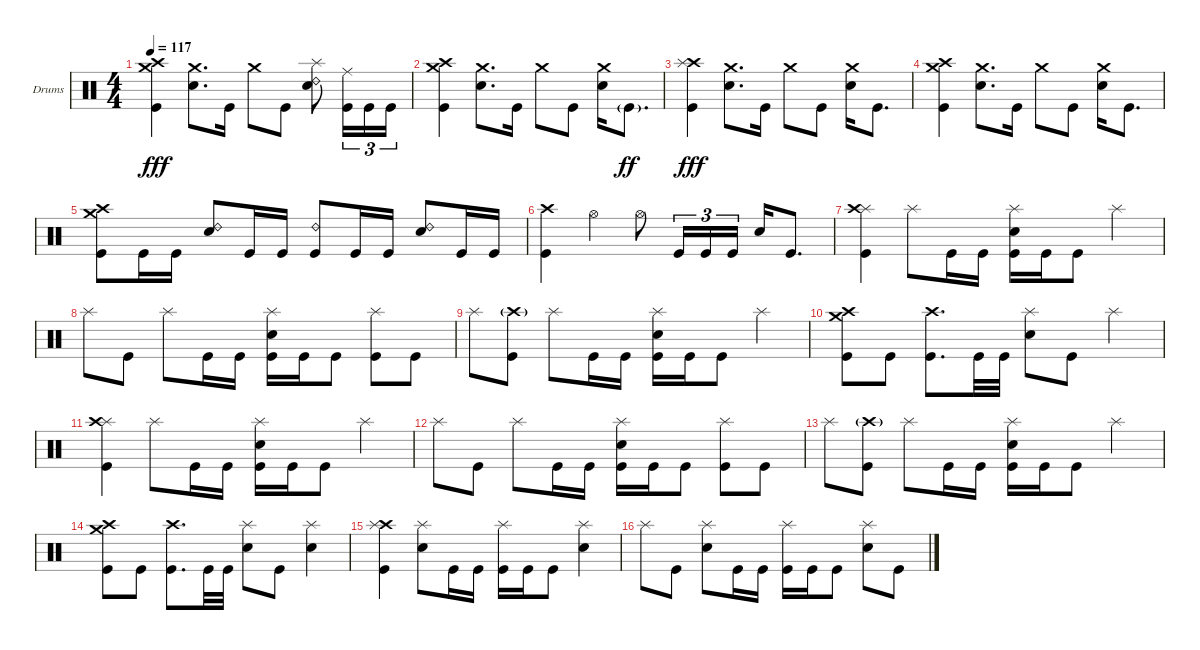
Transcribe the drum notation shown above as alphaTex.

\defaultSystemsLayout 4
\bracketExtendMode groupsimilarinstruments
\firstSystemTrackNameOrientation horizontal
\otherSystemsTrackNameOrientation horizontal
\track ("Drumkit" "Drums") {instrument percussion}
\staff {score}
\articulation defaults
\ts (4 4)
\tempo 117
\clef neutral
\scale
0.333333
\ks c
("Crash high (hit)" "Crash medium (hit)" "Kick (hit)").4{dy fff} ("Crash medium (hit)" "Snare (hit) 2").8{d} "Kick (hit)".16 "Crash medium (hit)".8 "Kick (hit)".8 ("Ride (bell) 2" "Splash (hit)" "Snare (hit) 2").8 ("Ride (middle)" "Kick (hit)").16{tu (3 2)} "Kick (hit)".16{tu (3 2)} "Kick (hit)".16{tu (3 2)} |
\scale
0.333333 ("Crash high (hit)" "Crash medium (hit)" "Kick (hit)").4 ("Crash medium (hit)" "Snare (hit) 2").8{d} "Kick (hit)".16 "Crash medium (hit)".8 "Kick (hit)".8 ("Crash medium (hit)" "Snare (hit) 2").16 "Kick (hit)"{g}.8{d dy ff} |
\scale
0.333333 ("Crash high (hit)" "Splash (hit)" "Kick (hit)").4{dy fff} ("Crash medium (hit)" "Snare (hit) 2").8{d} "Kick (hit)".16 "Crash medium (hit)".8 "Kick (hit)".8 ("Crash medium (hit)" "Snare (hit) 2").16 "Kick (hit)".8{d} |
\scale
0.333333 ("Crash high (hit)" "Crash medium (hit)" "Kick (hit)").4 ("Crash medium (hit)" "Snare (hit) 2").8{d} "Kick (hit)".16 "Crash medium (hit)".8 "Kick (hit)".8 ("Crash medium (hit)" "Snare (hit) 2").16 "Kick (hit)".8{d} |
\scale
0.333333 ("Crash high (hit)" "Crash medium (hit)" "Kick (hit)").8 "Kick (hit)".16 "Kick (hit)".16 ("Ride (bell) 2" "Snare (hit) 2").8 "Kick (hit)".16 "Kick (hit)".16 ("Ride (bell) 2" "Kick (hit)").8 "Kick (hit)".16 "Kick (hit)".16 ("Ride (bell) 2" "Snare (hit) 2").8 "Kick (hit)".16 "Kick (hit)".16 |
\scale
0.333333 ("Crash high (hit)" "Kick (hit)").4 "Hi-Hat (open)".4 "Hi-Hat (open)".8 "Kick (hit)".16{tu (3 2)} "Kick (hit)".16{tu (3 2)} "Kick (hit)".16{tu (3 2)} "Snare (hit) 2".16 "Kick (hit)".8{d} |
\scale
0.333333 ("Splash (hit)" "Crash high (hit)" "Kick (hit)").4 "Splash (hit)".8 "Kick (hit)".16 "Kick (hit)".16 ("Splash (hit)" "Snare (hit) 2" "Kick (hit)").16 "Kick (hit)".16 "Kick (hit)".8 "Splash (hit)".4 |
\scale
0.333333 "Splash (hit)".8 "Kick (hit)".8 "Splash (hit)".8 "Kick (hit)".16 "Kick (hit)".16 ("Splash (hit)" "Snare (hit) 2" "Kick (hit)").16 "Kick (hit)".16 "Kick (hit)".8 ("Splash (hit)" "Kick (hit)").8 "Kick (hit)".8 |
\scale
0.333333 "Splash (hit)".8 ("Crash high (hit)"{g} "Kick (hit)").8 "Splash (hit)".8 "Kick (hit)".16 "Kick (hit)".16 ("Splash (hit)" "Snare (hit) 2" "Kick (hit)").16 "Kick (hit)".16 "Kick (hit)".8 "Splash (hit)".4 |
\scale
0.333333 ("Crash high (hit)" "Crash medium (hit)" "Kick (hit)").8 "Kick (hit)".8 ("Crash high (hit)" "Kick (hit)").8{d} "Kick (hit)".32 "Kick (hit)".32 ("Splash (hit)" "Snare (hit) 2").8 "Kick (hit)".8 "Splash (hit)".4 |
\scale
0.333333 ("Splash (hit)" "Crash high (hit)" "Kick (hit)").4 "Splash (hit)".8 "Kick (hit)".16 "Kick (hit)".16 ("Splash (hit)" "Snare (hit) 2" "Kick (hit)").16 "Kick (hit)".16 "Kick (hit)".8 "Splash (hit)".4 |
\scale
0.333333 "Splash (hit)".8 "Kick (hit)".8 "Splash (hit)".8 "Kick (hit)".16 "Kick (hit)".16 ("Splash (hit)" "Snare (hit) 2" "Kick (hit)").16 "Kick (hit)".16 "Kick (hit)".8 ("Splash (hit)" "Kick (hit)").8 "Kick (hit)".8 |
\scale
0.333333 "Splash (hit)".8 ("Crash high (hit)"{g} "Kick (hit)").8 "Splash (hit)".8 "Kick (hit)".16 "Kick (hit)".16 ("Splash (hit)" "Snare (hit) 2" "Kick (hit)").16 "Kick (hit)".16 "Kick (hit)".8 "Splash (hit)".4 |
\scale
0.333333 ("Crash high (hit)" "Crash medium (hit)" "Kick (hit)").8 "Kick (hit)".8 ("Crash high (hit)" "Kick (hit)").8{d} "Kick (hit)".32 "Kick (hit)".32 ("Splash (hit)" "Snare (hit) 2").8 "Kick (hit)".8 ("Splash (hit)" "Snare (hit) 2").4 |
\scale
0.333333 ("Crash high (hit)" "Splash (hit)" "Kick (hit)").4 ("Splash (hit)" "Snare (hit) 2").8 "Kick (hit)".16 "Kick (hit)".16 ("Splash (hit)" "Kick (hit)").16 "Kick (hit)".16 "Kick (hit)".8 ("Splash (hit)" "Snare (hit) 2").4 |
\scale
0.333333 "Splash (hit)".8 "Kick (hit)".8 ("Splash (hit)" "Snare (hit) 2").8 "Kick (hit)".16 "Kick (hit)".16 ("Splash (hit)" "Kick (hit)").16 "Kick (hit)".16 "Kick (hit)".8 ("Splash (hit)" "Snare (hit) 2").8 "Kick (hit)".8
